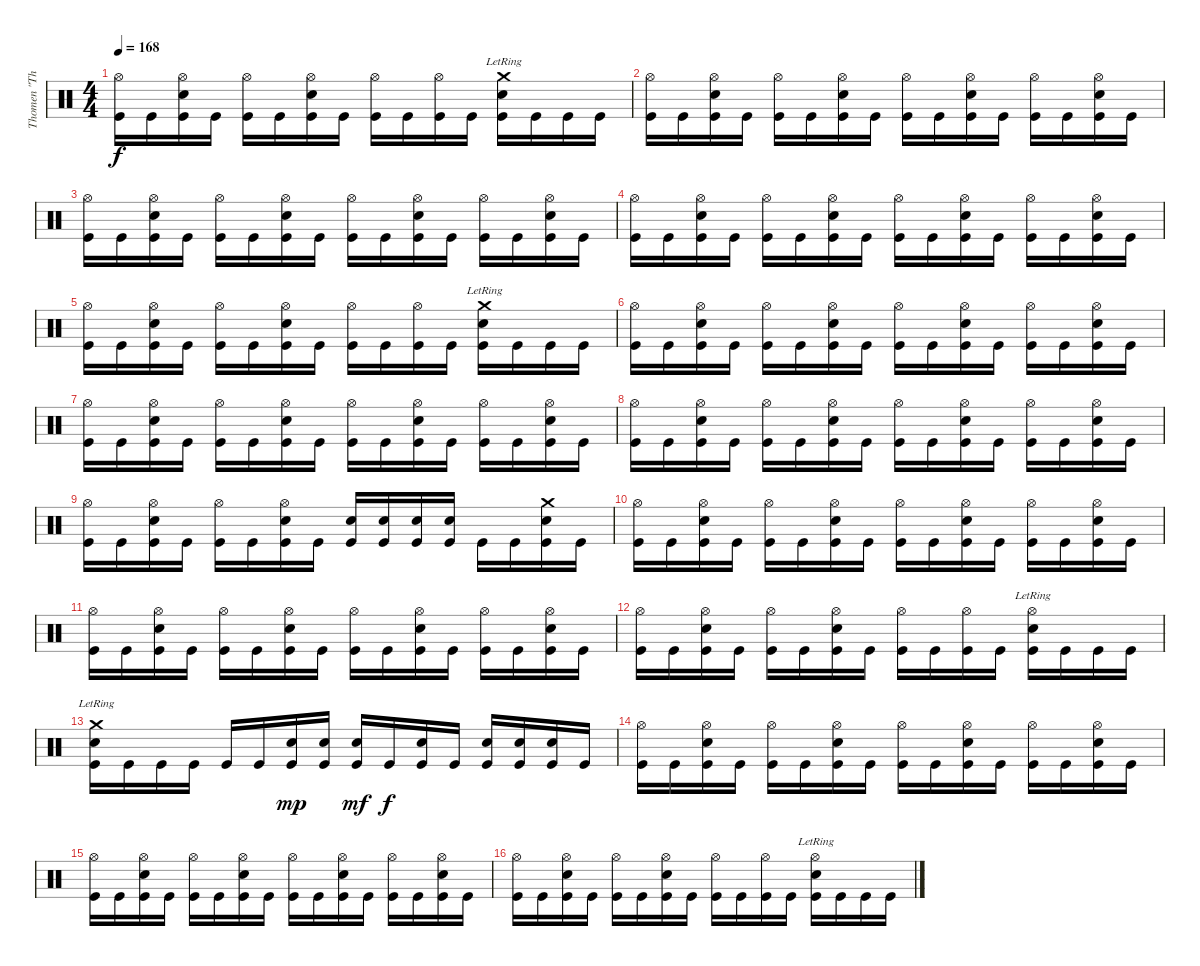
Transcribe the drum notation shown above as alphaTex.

\track ("Thomen \"The Omen\" Stauch" "Thomen \"Th") {instrument percussion}
\staff {score}
\articulation defaults
\ts (4 4)
\tempo 168
\clef neutral
\ks c
("Hi-Hat (open)" "Kick (hit)").16{dy f} "Kick (hit)".16 ("Hi-Hat (open)" "Snare (hit) 2" "Kick (hit)").16 "Kick (hit)".16 ("Hi-Hat (open)" "Kick (hit)").16 "Kick (hit)".16 ("Hi-Hat (open)" "Snare (hit) 2" "Kick (hit)").16 "Kick (hit)".16 ("Hi-Hat (open)" "Kick (hit)").16 "Kick (hit)".16 ("Hi-Hat (open)" "Kick (hit)").16 "Kick (hit)".16 ("Crash medium (hit)"{lr} "Snare (hit) 2" "Kick (hit)").16 "Kick (hit)".16 "Kick (hit)".16 "Kick (hit)".16 |
("Hi-Hat (open)" "Kick (hit)").16 "Kick (hit)".16 ("Hi-Hat (open)" "Snare (hit) 2" "Kick (hit)").16 "Kick (hit)".16 ("Hi-Hat (open)" "Kick (hit)").16 "Kick (hit)".16 ("Hi-Hat (open)" "Snare (hit) 2" "Kick (hit)").16 "Kick (hit)".16 ("Hi-Hat (open)" "Kick (hit)").16 "Kick (hit)".16 ("Hi-Hat (open)" "Snare (hit) 2" "Kick (hit)").16 "Kick (hit)".16 ("Hi-Hat (open)" "Kick (hit)").16 "Kick (hit)".16 ("Hi-Hat (open)" "Snare (hit) 2" "Kick (hit)").16 "Kick (hit)".16 |
("Hi-Hat (open)" "Kick (hit)").16 "Kick (hit)".16 ("Hi-Hat (open)" "Snare (hit) 2" "Kick (hit)").16 "Kick (hit)".16 ("Hi-Hat (open)" "Kick (hit)").16 "Kick (hit)".16 ("Hi-Hat (open)" "Snare (hit) 2" "Kick (hit)").16 "Kick (hit)".16 ("Hi-Hat (open)" "Kick (hit)").16 "Kick (hit)".16 ("Hi-Hat (open)" "Snare (hit) 2" "Kick (hit)").16 "Kick (hit)".16 ("Hi-Hat (open)" "Kick (hit)").16 "Kick (hit)".16 ("Hi-Hat (open)" "Snare (hit) 2" "Kick (hit)").16 "Kick (hit)".16 |
("Hi-Hat (open)" "Kick (hit)").16 "Kick (hit)".16 ("Hi-Hat (open)" "Snare (hit) 2" "Kick (hit)").16 "Kick (hit)".16 ("Hi-Hat (open)" "Kick (hit)").16 "Kick (hit)".16 ("Hi-Hat (open)" "Snare (hit) 2" "Kick (hit)").16 "Kick (hit)".16 ("Hi-Hat (open)" "Kick (hit)").16 "Kick (hit)".16 ("Hi-Hat (open)" "Snare (hit) 2" "Kick (hit)").16 "Kick (hit)".16 ("Hi-Hat (open)" "Kick (hit)").16 "Kick (hit)".16 ("Hi-Hat (open)" "Snare (hit) 2" "Kick (hit)").16 "Kick (hit)".16 |
("Hi-Hat (open)" "Kick (hit)").16 "Kick (hit)".16 ("Hi-Hat (open)" "Snare (hit) 2" "Kick (hit)").16 "Kick (hit)".16 ("Hi-Hat (open)" "Kick (hit)").16 "Kick (hit)".16 ("Hi-Hat (open)" "Snare (hit) 2" "Kick (hit)").16 "Kick (hit)".16 ("Hi-Hat (open)" "Kick (hit)").16 "Kick (hit)".16 ("Hi-Hat (open)" "Kick (hit)").16 "Kick (hit)".16 ("Crash medium (hit)"{lr} "Snare (hit) 2" "Kick (hit)").16 "Kick (hit)".16 "Kick (hit)".16 "Kick (hit)".16 |
("Hi-Hat (open)" "Kick (hit)").16 "Kick (hit)".16 ("Hi-Hat (open)" "Snare (hit) 2" "Kick (hit)").16 "Kick (hit)".16 ("Hi-Hat (open)" "Kick (hit)").16 "Kick (hit)".16 ("Hi-Hat (open)" "Snare (hit) 2" "Kick (hit)").16 "Kick (hit)".16 ("Hi-Hat (open)" "Kick (hit)").16 "Kick (hit)".16 ("Hi-Hat (open)" "Snare (hit) 2" "Kick (hit)").16 "Kick (hit)".16 ("Hi-Hat (open)" "Kick (hit)").16 "Kick (hit)".16 ("Hi-Hat (open)" "Snare (hit) 2" "Kick (hit)").16 "Kick (hit)".16 |
("Hi-Hat (open)" "Kick (hit)").16 "Kick (hit)".16 ("Hi-Hat (open)" "Snare (hit) 2" "Kick (hit)").16 "Kick (hit)".16 ("Hi-Hat (open)" "Kick (hit)").16 "Kick (hit)".16 ("Hi-Hat (open)" "Snare (hit) 2" "Kick (hit)").16 "Kick (hit)".16 ("Hi-Hat (open)" "Kick (hit)").16 "Kick (hit)".16 ("Hi-Hat (open)" "Snare (hit) 2" "Kick (hit)").16 "Kick (hit)".16 ("Hi-Hat (open)" "Kick (hit)").16 "Kick (hit)".16 ("Hi-Hat (open)" "Snare (hit) 2" "Kick (hit)").16 "Kick (hit)".16 |
("Hi-Hat (open)" "Kick (hit)").16 "Kick (hit)".16 ("Hi-Hat (open)" "Snare (hit) 2" "Kick (hit)").16 "Kick (hit)".16 ("Hi-Hat (open)" "Kick (hit)").16 "Kick (hit)".16 ("Hi-Hat (open)" "Snare (hit) 2" "Kick (hit)").16 "Kick (hit)".16 ("Hi-Hat (open)" "Kick (hit)").16 "Kick (hit)".16 ("Hi-Hat (open)" "Snare (hit) 2" "Kick (hit)").16 "Kick (hit)".16 ("Hi-Hat (open)" "Kick (hit)").16 "Kick (hit)".16 ("Hi-Hat (open)" "Snare (hit) 2" "Kick (hit)").16 "Kick (hit)".16 |
("Hi-Hat (open)" "Kick (hit)").16 "Kick (hit)".16 ("Hi-Hat (open)" "Snare (hit) 2" "Kick (hit)").16 "Kick (hit)".16 ("Hi-Hat (open)" "Kick (hit)").16 "Kick (hit)".16 ("Hi-Hat (open)" "Snare (hit) 2" "Kick (hit)").16 "Kick (hit)".16 ("Snare (hit) 2" "Kick (hit)").16 ("Snare (hit) 2" "Kick (hit)").16 ("Snare (hit) 2" "Kick (hit)").16 ("Snare (hit) 2" "Kick (hit)").16 "Kick (hit)".16 "Kick (hit)".16 ("Crash medium (hit)" "Snare (hit) 2" "Kick (hit)").16 "Kick (hit)".16 |
("Hi-Hat (open)" "Kick (hit)").16 "Kick (hit)".16 ("Hi-Hat (open)" "Snare (hit) 2" "Kick (hit)").16 "Kick (hit)".16 ("Hi-Hat (open)" "Kick (hit)").16 "Kick (hit)".16 ("Hi-Hat (open)" "Snare (hit) 2" "Kick (hit)").16 "Kick (hit)".16 ("Hi-Hat (open)" "Kick (hit)").16 "Kick (hit)".16 ("Hi-Hat (open)" "Snare (hit) 2" "Kick (hit)").16 "Kick (hit)".16 ("Hi-Hat (open)" "Kick (hit)").16 "Kick (hit)".16 ("Hi-Hat (open)" "Snare (hit) 2" "Kick (hit)").16 "Kick (hit)".16 |
("Hi-Hat (open)" "Kick (hit)").16 "Kick (hit)".16 ("Hi-Hat (open)" "Snare (hit) 2" "Kick (hit)").16 "Kick (hit)".16 ("Hi-Hat (open)" "Kick (hit)").16 "Kick (hit)".16 ("Hi-Hat (open)" "Snare (hit) 2" "Kick (hit)").16 "Kick (hit)".16 ("Hi-Hat (open)" "Kick (hit)").16 "Kick (hit)".16 ("Hi-Hat (open)" "Snare (hit) 2" "Kick (hit)").16 "Kick (hit)".16 ("Hi-Hat (open)" "Kick (hit)").16 "Kick (hit)".16 ("Hi-Hat (open)" "Snare (hit) 2" "Kick (hit)").16 "Kick (hit)".16 |
("Hi-Hat (open)" "Kick (hit)").16 "Kick (hit)".16 ("Hi-Hat (open)" "Snare (hit) 2" "Kick (hit)").16 "Kick (hit)".16 ("Hi-Hat (open)" "Kick (hit)").16 "Kick (hit)".16 ("Hi-Hat (open)" "Snare (hit) 2" "Kick (hit)").16 "Kick (hit)".16 ("Hi-Hat (open)" "Kick (hit)").16 "Kick (hit)".16 ("Hi-Hat (open)" "Kick (hit)").16 "Kick (hit)".16 ("Hi-Hat (open)"{lr} "Snare (hit) 2" "Kick (hit)").16 "Kick (hit)".16 "Kick (hit)".16 "Kick (hit)".16 |
("Crash medium (hit)"{lr} "Snare (hit) 2" "Kick (hit)").16 "Kick (hit)".16 "Kick (hit)".16 "Kick (hit)".16 "Kick (hit)".16 "Kick (hit)".16 ("Snare (hit) 2" "Kick (hit)").16{dy mp} ("Snare (hit) 2" "Kick (hit)").16 ("Snare (hit) 2" "Kick (hit)").16{dy mf} "Kick (hit)".16{dy f} ("Snare (hit) 2" "Kick (hit)").16 "Kick (hit)".16 ("Snare (hit) 2" "Kick (hit)").16 ("Snare (hit) 2" "Kick (hit)").16 ("Snare (hit) 2" "Kick (hit)").16 "Kick (hit)".16 |
("Hi-Hat (open)" "Kick (hit)").16 "Kick (hit)".16 ("Hi-Hat (open)" "Snare (hit) 2" "Kick (hit)").16 "Kick (hit)".16 ("Hi-Hat (open)" "Kick (hit)").16 "Kick (hit)".16 ("Hi-Hat (open)" "Snare (hit) 2" "Kick (hit)").16 "Kick (hit)".16 ("Hi-Hat (open)" "Kick (hit)").16 "Kick (hit)".16 ("Hi-Hat (open)" "Snare (hit) 2" "Kick (hit)").16 "Kick (hit)".16 ("Hi-Hat (open)" "Kick (hit)").16 "Kick (hit)".16 ("Hi-Hat (open)" "Snare (hit) 2" "Kick (hit)").16 "Kick (hit)".16 |
("Hi-Hat (open)" "Kick (hit)").16 "Kick (hit)".16 ("Hi-Hat (open)" "Snare (hit) 2" "Kick (hit)").16 "Kick (hit)".16 ("Hi-Hat (open)" "Kick (hit)").16 "Kick (hit)".16 ("Hi-Hat (open)" "Snare (hit) 2" "Kick (hit)").16 "Kick (hit)".16 ("Hi-Hat (open)" "Kick (hit)").16 "Kick (hit)".16 ("Hi-Hat (open)" "Snare (hit) 2" "Kick (hit)").16 "Kick (hit)".16 ("Hi-Hat (open)" "Kick (hit)").16 "Kick (hit)".16 ("Hi-Hat (open)" "Snare (hit) 2" "Kick (hit)").16 "Kick (hit)".16 |
("Hi-Hat (open)" "Kick (hit)").16 "Kick (hit)".16 ("Hi-Hat (open)" "Snare (hit) 2" "Kick (hit)").16 "Kick (hit)".16 ("Hi-Hat (open)" "Kick (hit)").16 "Kick (hit)".16 ("Hi-Hat (open)" "Snare (hit) 2" "Kick (hit)").16 "Kick (hit)".16 ("Hi-Hat (open)" "Kick (hit)").16 "Kick (hit)".16 ("Hi-Hat (open)" "Kick (hit)").16 "Kick (hit)".16 ("Hi-Hat (open)"{lr} "Snare (hit) 2" "Kick (hit)").16 "Kick (hit)".16 "Kick (hit)".16 "Kick (hit)".16
